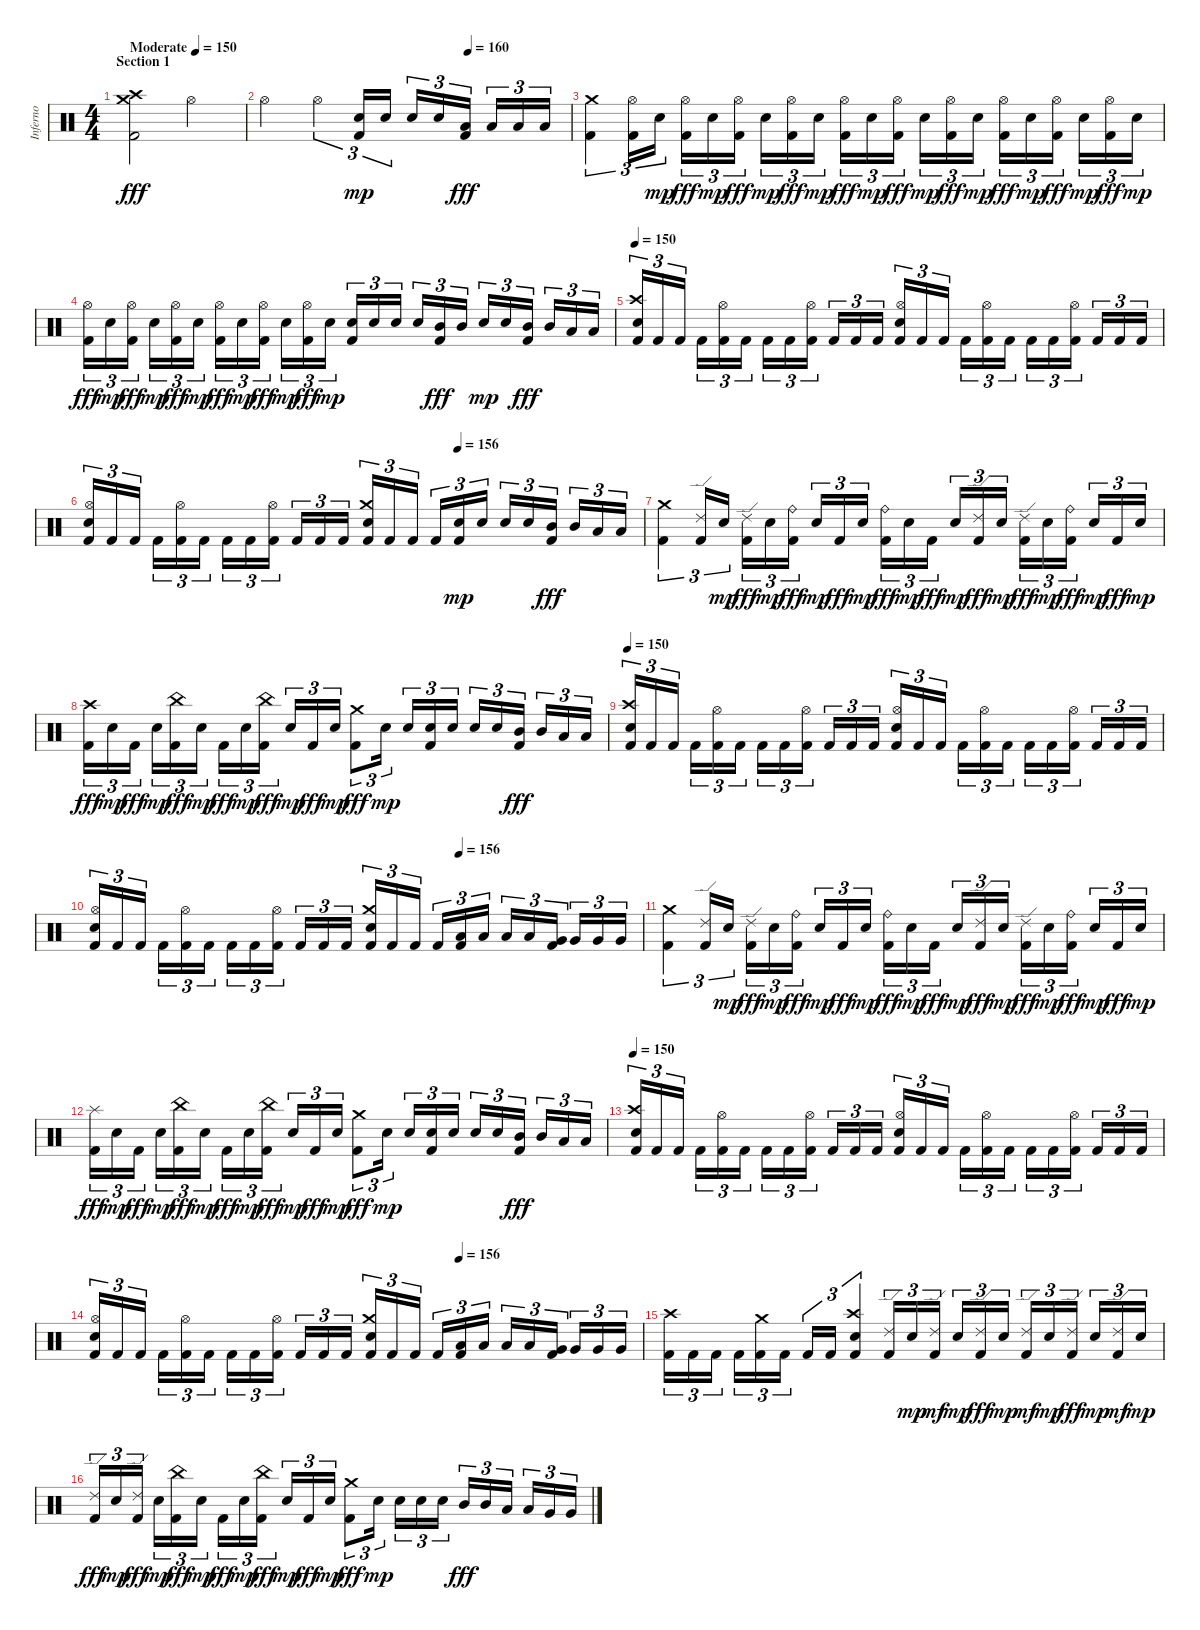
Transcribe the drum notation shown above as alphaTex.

\track ("Inferno" "Inferno") {instrument percussion}
\staff {score}
\articulation defaults
\ts (4 4)
\section ("" "Section 1")
\tempo (150 "Moderate")
\clef neutral
\ks c
("Kick (hit) 2" "Crash medium (hit)" "Crash high (hit)").2{dy fff} "Hi-Hat (open)".2 |
\tempo (160 0.6666666666666666)
"Hi-Hat (open)".2 "Hi-Hat (open)".4{tu (3 2)} ("Kick (hit) 2" "Electric Snare (hit)").16{tu (3 2) dy mp} "Electric Snare (hit)".16{tu (3 2)} "Electric Snare (hit)".16{tu (3 2)} "Electric Snare (hit)".16{tu (3 2)} ("Kick (hit) 2" "Low Tom (hit)").16{tu (3 2) dy fff beam splitsecondary} "Low Tom (hit)".16{tu (3 2)} "Low Tom (hit)".16{tu (3 2)} "Low Tom (hit)".16{tu (3 2)} |
("Kick (hit) 2" "Crash medium (hit)").4{tu (3 2)} ("Kick (hit) 2" "Hi-Hat (open)").16{tu (3 2)} "Electric Snare (hit)".16{tu (3 2) dy mp} ("Kick (hit) 2" "Hi-Hat (open)").16{tu (3 2) dy fff} "Electric Snare (hit)".16{tu (3 2) dy mp} ("Kick (hit) 2" "Hi-Hat (open)").16{tu (3 2) dy fff beam splitsecondary} "Electric Snare (hit)".16{tu (3 2) dy mp} ("Kick (hit) 2" "Hi-Hat (open)").16{tu (3 2) dy fff} "Electric Snare (hit)".16{tu (3 2) dy mp} ("Kick (hit) 2" "Hi-Hat (open)").16{tu (3 2) dy fff} "Electric Snare (hit)".16{tu (3 2) dy mp} ("Kick (hit) 2" "Hi-Hat (open)").16{tu (3 2) dy fff beam splitsecondary} "Electric Snare (hit)".16{tu (3 2) dy mp} ("Kick (hit) 2" "Hi-Hat (open)").16{tu (3 2) dy fff} "Electric Snare (hit)".16{tu (3 2) dy mp} ("Kick (hit) 2" "Hi-Hat (open)").16{tu (3 2) dy fff} "Electric Snare (hit)".16{tu (3 2) dy mp} ("Kick (hit) 2" "Hi-Hat (open)").16{tu (3 2) dy fff beam splitsecondary} "Electric Snare (hit)".16{tu (3 2) dy mp} ("Kick (hit) 2" "Hi-Hat (open)").16{tu (3 2) dy fff} "Electric Snare (hit)".16{tu (3 2) dy mp} |
("Kick (hit) 2" "Hi-Hat (open)").16{tu (3 2) dy fff} "Electric Snare (hit)".16{tu (3 2) dy mp} ("Kick (hit) 2" "Hi-Hat (open)").16{tu (3 2) dy fff beam splitsecondary} "Electric Snare (hit)".16{tu (3 2) dy mp} ("Kick (hit) 2" "Hi-Hat (open)").16{tu (3 2) dy fff} "Electric Snare (hit)".16{tu (3 2) dy mp} ("Kick (hit) 2" "Hi-Hat (open)").16{tu (3 2) dy fff} "Electric Snare (hit)".16{tu (3 2) dy mp} ("Kick (hit) 2" "Hi-Hat (open)").16{tu (3 2) dy fff beam splitsecondary} "Electric Snare (hit)".16{tu (3 2) dy mp} ("Kick (hit) 2" "Hi-Hat (open)").16{tu (3 2) dy fff} "Electric Snare (hit)".16{tu (3 2) dy mp} ("Kick (hit) 2" "Electric Snare (hit)").16{tu (3 2)} "Electric Snare (hit)".16{tu (3 2)} "Electric Snare (hit)".16{tu (3 2) beam splitsecondary} "Electric Snare (hit)".16{tu (3 2)} ("Kick (hit) 2" "Mid Tom (hit)").16{tu (3 2) dy fff} "Mid Tom (hit)".16{tu (3 2)} "Electric Snare (hit)".16{tu (3 2) dy mp} "Electric Snare (hit)".16{tu (3 2)} ("Kick (hit) 2" "Mid Tom (hit)").16{tu (3 2) dy fff beam splitsecondary} "Mid Tom (hit)".16{tu (3 2)} "Low Tom (hit)".16{tu (3 2)} "Low Tom (hit)".16{tu (3 2)} |
\tempo 150
("Kick (hit) 2" "Electric Snare (hit)" "Crash high (hit)").16{tu (3 2)} "Kick (hit) 2".16{tu (3 2)} "Kick (hit) 2".16{tu (3 2) beam splitsecondary} "Kick (hit) 2".16{tu (3 2)} ("Kick (hit) 2" "Hi-Hat (open)").16{tu (3 2)} "Kick (hit) 2".16{tu (3 2)} "Kick (hit) 2".16{tu (3 2)} "Kick (hit) 2".16{tu (3 2)} ("Kick (hit) 2" "Hi-Hat (open)").16{tu (3 2) beam splitsecondary} "Kick (hit) 2".16{tu (3 2)} "Kick (hit) 2".16{tu (3 2)} "Kick (hit) 2".16{tu (3 2)} ("Kick (hit) 2" "Electric Snare (hit)" "Hi-Hat (open)").16{tu (3 2)} "Kick (hit) 2".16{tu (3 2)} "Kick (hit) 2".16{tu (3 2) beam splitsecondary} "Kick (hit) 2".16{tu (3 2)} ("Kick (hit) 2" "Hi-Hat (open)").16{tu (3 2)} "Kick (hit) 2".16{tu (3 2)} "Kick (hit) 2".16{tu (3 2)} "Kick (hit) 2".16{tu (3 2)} ("Kick (hit) 2" "Hi-Hat (open)").16{tu (3 2) beam splitsecondary} "Kick (hit) 2".16{tu (3 2)} "Kick (hit) 2".16{tu (3 2)} "Kick (hit) 2".16{tu (3 2)} |
\tempo (156 0.6666666666666666)
("Kick (hit) 2" "Electric Snare (hit)" "Hi-Hat (open)").16{tu (3 2)} "Kick (hit) 2".16{tu (3 2)} "Kick (hit) 2".16{tu (3 2) beam splitsecondary} "Kick (hit) 2".16{tu (3 2)} ("Kick (hit) 2" "Hi-Hat (open)").16{tu (3 2)} "Kick (hit) 2".16{tu (3 2)} "Kick (hit) 2".16{tu (3 2)} "Kick (hit) 2".16{tu (3 2)} ("Kick (hit) 2" "Hi-Hat (open)").16{tu (3 2) beam splitsecondary} "Kick (hit) 2".16{tu (3 2)} "Kick (hit) 2".16{tu (3 2)} "Kick (hit) 2".16{tu (3 2)} ("Kick (hit) 2" "Electric Snare (hit)" "Crash medium (hit)").16{tu (3 2)} "Kick (hit) 2".16{tu (3 2)} "Kick (hit) 2".16{tu (3 2) beam splitsecondary} "Kick (hit) 2".16{tu (3 2)} ("Kick (hit) 2" "Electric Snare (hit)").16{tu (3 2) dy mp} "Electric Snare (hit)".16{tu (3 2)} "Electric Snare (hit)".16{tu (3 2)} "Electric Snare (hit)".16{tu (3 2)} ("Kick (hit) 2" "Mid Tom (hit)").16{tu (3 2) dy fff beam splitsecondary} "Mid Tom (hit)".16{tu (3 2)} "Low Tom (hit)".16{tu (3 2)} "Low Tom (hit)".16{tu (3 2)} |
("Kick (hit) 2" "Crash medium (hit)").4{tu (3 2)} ("Kick (hit) 2" "Ride (edge) 2").16{tu (3 2)} "Electric Snare (hit)".16{tu (3 2) dy mp} ("Kick (hit) 2" "Ride (edge) 2").16{tu (3 2) dy fff} "Electric Snare (hit)".16{tu (3 2) dy mp} ("Kick (hit) 2" "Ride (bell)").16{tu (3 2) dy fff beam splitsecondary} "Electric Snare (hit)".16{tu (3 2) dy mp} "Kick (hit) 2".16{tu (3 2) dy fff} "Electric Snare (hit)".16{tu (3 2) dy mp} ("Kick (hit) 2" "Ride (bell)").16{tu (3 2) dy fff} "Electric Snare (hit)".16{tu (3 2) dy mp} "Kick (hit) 2".16{tu (3 2) dy fff beam splitsecondary} "Electric Snare (hit)".16{tu (3 2) dy mp} ("Kick (hit) 2" "Ride (edge) 2").16{tu (3 2) dy fff} "Electric Snare (hit)".16{tu (3 2) dy mp} ("Kick (hit) 2" "Ride (edge) 2").16{tu (3 2) dy fff} "Electric Snare (hit)".16{tu (3 2) dy mp} ("Kick (hit) 2" "Ride (bell)").16{tu (3 2) dy fff beam splitsecondary} "Electric Snare (hit)".16{tu (3 2) dy mp} "Kick (hit) 2".16{tu (3 2) dy fff} "Electric Snare (hit)".16{tu (3 2) dy mp} |
("Kick (hit) 2" "Crash high (hit)").16{tu (3 2) dy fff} "Electric Snare (hit)".16{tu (3 2) dy mp} "Kick (hit) 2".16{tu (3 2) dy fff beam splitsecondary} "Electric Snare (hit)".16{tu (3 2) dy mp} ("Kick (hit) 2" "China (hit)").16{tu (3 2) dy fff} "Electric Snare (hit)".16{tu (3 2) dy mp} "Kick (hit) 2".16{tu (3 2) dy fff} "Electric Snare (hit)".16{tu (3 2) dy mp} ("Kick (hit) 2" "China (hit)").16{tu (3 2) dy fff beam splitsecondary} "Electric Snare (hit)".16{tu (3 2) dy mp} "Kick (hit) 2".16{tu (3 2) dy fff} "Electric Snare (hit)".16{tu (3 2) dy mp} ("Kick (hit) 2" "Crash medium (hit)").8{tu (3 2) dy fff} "Electric Snare (hit)".16{tu (3 2) dy mp beam splitsecondary} "Electric Snare (hit)".16{tu (3 2)} ("Kick (hit) 2" "Electric Snare (hit)").16{tu (3 2)} "Electric Snare (hit)".16{tu (3 2)} "Electric Snare (hit)".16{tu (3 2)} "Electric Snare (hit)".16{tu (3 2)} ("Kick (hit) 2" "Mid Tom (hit)").16{tu (3 2) dy fff beam splitsecondary} "Mid Tom (hit)".16{tu (3 2)} "Low Tom (hit)".16{tu (3 2)} "Low Tom (hit)".16{tu (3 2)} |
\tempo 150
("Kick (hit) 2" "Electric Snare (hit)" "Crash high (hit)").16{tu (3 2)} "Kick (hit) 2".16{tu (3 2)} "Kick (hit) 2".16{tu (3 2) beam splitsecondary} "Kick (hit) 2".16{tu (3 2)} ("Kick (hit) 2" "Hi-Hat (open)").16{tu (3 2)} "Kick (hit) 2".16{tu (3 2)} "Kick (hit) 2".16{tu (3 2)} "Kick (hit) 2".16{tu (3 2)} ("Kick (hit) 2" "Hi-Hat (open)").16{tu (3 2) beam splitsecondary} "Kick (hit) 2".16{tu (3 2)} "Kick (hit) 2".16{tu (3 2)} "Kick (hit) 2".16{tu (3 2)} ("Kick (hit) 2" "Electric Snare (hit)" "Hi-Hat (open)").16{tu (3 2)} "Kick (hit) 2".16{tu (3 2)} "Kick (hit) 2".16{tu (3 2) beam splitsecondary} "Kick (hit) 2".16{tu (3 2)} ("Kick (hit) 2" "Hi-Hat (open)").16{tu (3 2)} "Kick (hit) 2".16{tu (3 2)} "Kick (hit) 2".16{tu (3 2)} "Kick (hit) 2".16{tu (3 2)} ("Kick (hit) 2" "Hi-Hat (open)").16{tu (3 2) beam splitsecondary} "Kick (hit) 2".16{tu (3 2)} "Kick (hit) 2".16{tu (3 2)} "Kick (hit) 2".16{tu (3 2)} |
\tempo (156 0.6666666666666666)
("Kick (hit) 2" "Electric Snare (hit)" "Hi-Hat (open)").16{tu (3 2)} "Kick (hit) 2".16{tu (3 2)} "Kick (hit) 2".16{tu (3 2) beam splitsecondary} "Kick (hit) 2".16{tu (3 2)} ("Kick (hit) 2" "Hi-Hat (open)").16{tu (3 2)} "Kick (hit) 2".16{tu (3 2)} "Kick (hit) 2".16{tu (3 2)} "Kick (hit) 2".16{tu (3 2)} ("Kick (hit) 2" "Hi-Hat (open)").16{tu (3 2) beam splitsecondary} "Kick (hit) 2".16{tu (3 2)} "Kick (hit) 2".16{tu (3 2)} "Kick (hit) 2".16{tu (3 2)} ("Kick (hit) 2" "Electric Snare (hit)" "Crash medium (hit)").16{tu (3 2)} "Kick (hit) 2".16{tu (3 2)} "Kick (hit) 2".16{tu (3 2) beam splitsecondary} "Kick (hit) 2".16{tu (3 2)} ("Kick (hit) 2" "Low Tom (hit)").16{tu (3 2)} "Low Tom (hit)".16{tu (3 2)} "Low Tom (hit)".16{tu (3 2)} "Low Tom (hit)".16{tu (3 2)} ("Kick (hit) 2" "Very Low Tom (hit)").16{tu (3 2) beam splitsecondary} "Very Low Tom (hit)".16{tu (3 2)} "Very Low Tom (hit)".16{tu (3 2)} "Very Low Tom (hit)".16{tu (3 2)} |
("Kick (hit) 2" "Crash medium (hit)").4{tu (3 2)} ("Kick (hit) 2" "Ride (edge) 2").16{tu (3 2)} "Electric Snare (hit)".16{tu (3 2) dy mp} ("Kick (hit) 2" "Ride (edge) 2").16{tu (3 2) dy fff} "Electric Snare (hit)".16{tu (3 2) dy mp} ("Kick (hit) 2" "Ride (bell)").16{tu (3 2) dy fff beam splitsecondary} "Electric Snare (hit)".16{tu (3 2) dy mp} "Kick (hit) 2".16{tu (3 2) dy fff} "Electric Snare (hit)".16{tu (3 2) dy mp} ("Kick (hit) 2" "Ride (bell)").16{tu (3 2) dy fff} "Electric Snare (hit)".16{tu (3 2) dy mp} "Kick (hit) 2".16{tu (3 2) dy fff beam splitsecondary} "Electric Snare (hit)".16{tu (3 2) dy mp} ("Kick (hit) 2" "Ride (edge) 2").16{tu (3 2) dy fff} "Electric Snare (hit)".16{tu (3 2) dy mp} ("Kick (hit) 2" "Ride (edge) 2").16{tu (3 2) dy fff} "Electric Snare (hit)".16{tu (3 2) dy mp} ("Kick (hit) 2" "Ride (bell)").16{tu (3 2) dy fff beam splitsecondary} "Electric Snare (hit)".16{tu (3 2) dy mp} "Kick (hit) 2".16{tu (3 2) dy fff} "Electric Snare (hit)".16{tu (3 2) dy mp} |
("Kick (hit) 2" "Splash (hit)").16{tu (3 2) dy fff} "Electric Snare (hit)".16{tu (3 2) dy mp} "Kick (hit) 2".16{tu (3 2) dy fff beam splitsecondary} "Electric Snare (hit)".16{tu (3 2) dy mp} ("Kick (hit) 2" "China (hit)").16{tu (3 2) dy fff} "Electric Snare (hit)".16{tu (3 2) dy mp} "Kick (hit) 2".16{tu (3 2) dy fff} "Electric Snare (hit)".16{tu (3 2) dy mp} ("Kick (hit) 2" "China (hit)").16{tu (3 2) dy fff beam splitsecondary} "Electric Snare (hit)".16{tu (3 2) dy mp} "Kick (hit) 2".16{tu (3 2) dy fff} "Electric Snare (hit)".16{tu (3 2) dy mp} ("Kick (hit) 2" "Crash medium (hit)").8{tu (3 2) dy fff} "Electric Snare (hit)".16{tu (3 2) dy mp beam splitsecondary} "Electric Snare (hit)".16{tu (3 2)} ("Kick (hit) 2" "Electric Snare (hit)").16{tu (3 2)} "Electric Snare (hit)".16{tu (3 2)} "Electric Snare (hit)".16{tu (3 2)} "Electric Snare (hit)".16{tu (3 2)} ("Kick (hit) 2" "Mid Tom (hit)").16{tu (3 2) dy fff beam splitsecondary} "Mid Tom (hit)".16{tu (3 2)} "Low Tom (hit)".16{tu (3 2)} "Low Tom (hit)".16{tu (3 2)} |
\tempo 150
("Kick (hit) 2" "Electric Snare (hit)" "Crash high (hit)").16{tu (3 2)} "Kick (hit) 2".16{tu (3 2)} "Kick (hit) 2".16{tu (3 2) beam splitsecondary} "Kick (hit) 2".16{tu (3 2)} ("Kick (hit) 2" "Hi-Hat (open)").16{tu (3 2)} "Kick (hit) 2".16{tu (3 2)} "Kick (hit) 2".16{tu (3 2)} "Kick (hit) 2".16{tu (3 2)} ("Kick (hit) 2" "Hi-Hat (open)").16{tu (3 2) beam splitsecondary} "Kick (hit) 2".16{tu (3 2)} "Kick (hit) 2".16{tu (3 2)} "Kick (hit) 2".16{tu (3 2)} ("Kick (hit) 2" "Electric Snare (hit)" "Hi-Hat (open)").16{tu (3 2)} "Kick (hit) 2".16{tu (3 2)} "Kick (hit) 2".16{tu (3 2) beam splitsecondary} "Kick (hit) 2".16{tu (3 2)} ("Kick (hit) 2" "Hi-Hat (open)").16{tu (3 2)} "Kick (hit) 2".16{tu (3 2)} "Kick (hit) 2".16{tu (3 2)} "Kick (hit) 2".16{tu (3 2)} ("Kick (hit) 2" "Hi-Hat (open)").16{tu (3 2) beam splitsecondary} "Kick (hit) 2".16{tu (3 2)} "Kick (hit) 2".16{tu (3 2)} "Kick (hit) 2".16{tu (3 2)} |
\tempo (156 0.6666666666666666)
("Kick (hit) 2" "Electric Snare (hit)" "Hi-Hat (open)").16{tu (3 2)} "Kick (hit) 2".16{tu (3 2)} "Kick (hit) 2".16{tu (3 2) beam splitsecondary} "Kick (hit) 2".16{tu (3 2)} ("Kick (hit) 2" "Hi-Hat (open)").16{tu (3 2)} "Kick (hit) 2".16{tu (3 2)} "Kick (hit) 2".16{tu (3 2)} "Kick (hit) 2".16{tu (3 2)} ("Kick (hit) 2" "Hi-Hat (open)").16{tu (3 2) beam splitsecondary} "Kick (hit) 2".16{tu (3 2)} "Kick (hit) 2".16{tu (3 2)} "Kick (hit) 2".16{tu (3 2)} ("Kick (hit) 2" "Electric Snare (hit)" "Crash medium (hit)").16{tu (3 2)} "Kick (hit) 2".16{tu (3 2)} "Kick (hit) 2".16{tu (3 2) beam splitsecondary} "Kick (hit) 2".16{tu (3 2)} ("Kick (hit) 2" "Low Tom (hit)").16{tu (3 2)} "Low Tom (hit)".16{tu (3 2)} "Low Tom (hit)".16{tu (3 2)} "Low Tom (hit)".16{tu (3 2)} ("Kick (hit) 2" "Very Low Tom (hit)").16{tu (3 2) beam splitsecondary} "Very Low Tom (hit)".16{tu (3 2)} "Very Low Tom (hit)".16{tu (3 2)} "Very Low Tom (hit)".16{tu (3 2)} |
("Kick (hit) 2" "Crash high (hit)").16{tu (3 2)} "Kick (hit) 2".16{tu (3 2)} "Kick (hit) 2".16{tu (3 2) beam splitsecondary} "Kick (hit) 2".16{tu (3 2)} ("Kick (hit) 2" "Crash medium (hit)").16{tu (3 2)} "Kick (hit) 2".16{tu (3 2)} "Kick (hit) 2".16{tu (3 2)} "Kick (hit) 2".16{tu (3 2)} ("Kick (hit) 2" "Electric Snare (hit)" "Crash high (hit)").4{tu (3 2)} ("Kick (hit) 2" "Ride (edge) 2").16{tu (3 2)} "Electric Snare (hit)".16{tu (3 2) dy mp} ("Kick (hit) 2" "Ride (edge) 2").16{tu (3 2) dy mf beam splitsecondary} "Electric Snare (hit)".16{tu (3 2) dy mp} ("Kick (hit) 2" "Ride (edge) 2").16{tu (3 2) dy fff} "Electric Snare (hit)".16{tu (3 2) dy mp} ("Kick (hit) 2" "Ride (edge) 2").16{tu (3 2) dy mf} "Electric Snare (hit)".16{tu (3 2) dy mp} ("Kick (hit) 2" "Ride (edge) 2").16{tu (3 2) dy fff beam splitsecondary} "Electric Snare (hit)".16{tu (3 2) dy mp} ("Kick (hit) 2" "Ride (edge) 2").16{tu (3 2) dy mf} "Electric Snare (hit)".16{tu (3 2) dy mp} |
("Kick (hit) 2" "Ride (edge) 2").16{tu (3 2) dy fff} "Electric Snare (hit)".16{tu (3 2) dy mp} ("Kick (hit) 2" "Ride (edge) 2").16{tu (3 2) dy fff beam splitsecondary} "Electric Snare (hit)".16{tu (3 2) dy mp} ("Kick (hit) 2" "China (hit)").16{tu (3 2) dy fff} "Electric Snare (hit)".16{tu (3 2) dy mp} "Kick (hit) 2".16{tu (3 2) dy fff} "Electric Snare (hit)".16{tu (3 2) dy mp} ("Kick (hit) 2" "China (hit)").16{tu (3 2) dy fff beam splitsecondary} "Electric Snare (hit)".16{tu (3 2) dy mp} "Kick (hit) 2".16{tu (3 2) dy fff} "Electric Snare (hit)".16{tu (3 2) dy mp} ("Kick (hit) 2" "Crash medium (hit)").8{tu (3 2) dy fff} "Electric Snare (hit)".16{tu (3 2) dy mp beam splitsecondary} "Electric Snare (hit)".16{tu (3 2)} "Electric Snare (hit)".16{tu (3 2)} "Electric Snare (hit)".16{tu (3 2)} "Mid Tom (hit)".16{tu (3 2) dy fff} "Mid Tom (hit)".16{tu (3 2)} "Low Tom (hit)".16{tu (3 2) beam splitsecondary} "Low Tom (hit)".16{tu (3 2)} "Very Low Tom (hit)".16{tu (3 2)} "Very Low Tom (hit)".16{tu (3 2)}
